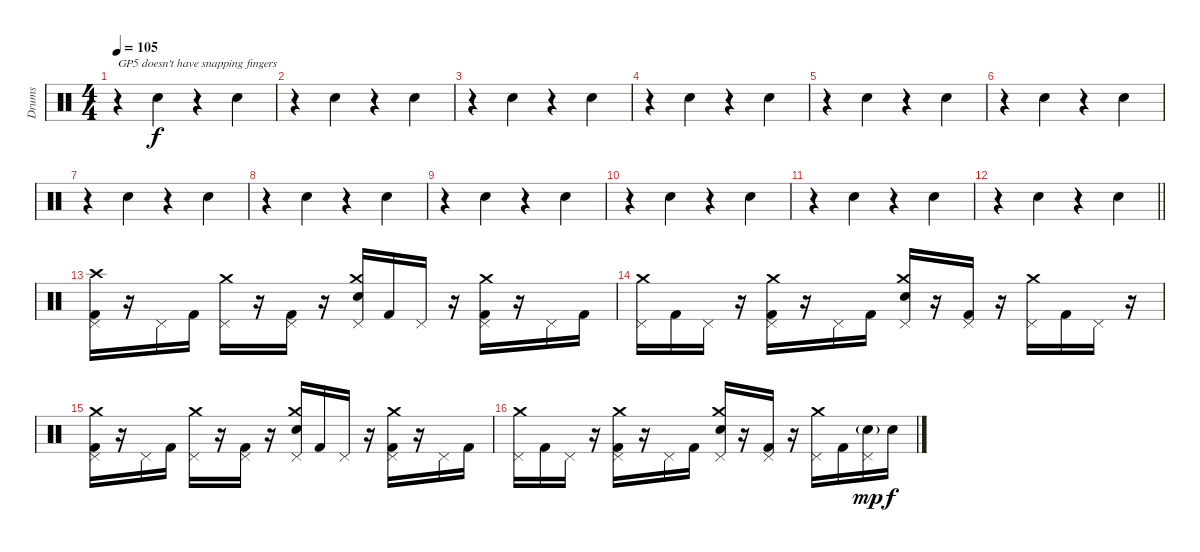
\track ("Drums" "Drums") {instrument percussion}
\staff {score}
\articulation defaults
\ts (4 4)
\section ("" "")
\tempo 105
\clef neutral
\ks c
r.4{txt "GP5 doesn't have snapping fingers" dy f} "Hand Clap (hit)".4 r.4 "Hand Clap (hit)".4 |
r.4 "Hand Clap (hit)".4 r.4 "Hand Clap (hit)".4 |
r.4 "Hand Clap (hit)".4 r.4 "Hand Clap (hit)".4 |
r.4 "Hand Clap (hit)".4 r.4 "Hand Clap (hit)".4 |
r.4 "Hand Clap (hit)".4 r.4 "Hand Clap (hit)".4 |
r.4 "Hand Clap (hit)".4 r.4 "Hand Clap (hit)".4 |
r.4 "Hand Clap (hit)".4 r.4 "Hand Clap (hit)".4 |
r.4 "Hand Clap (hit)".4 r.4 "Hand Clap (hit)".4 |
r.4 "Hand Clap (hit)".4 r.4 "Hand Clap (hit)".4 |
r.4 "Hand Clap (hit)".4 r.4 "Hand Clap (hit)".4 |
r.4{volume 8} "Hand Clap (hit)".4 r.4 "Hand Clap (hit)".4 |
\barLineRight lightlight
r.4 "Hand Clap (hit)".4 r.4 "Hand Clap (hit)".4 |
\section ("" "")
("Crash high (hit)" "Pedal Hi-Hat (hit)" "Kick (hit) 2").16{volume 16} r.16 "Pedal Hi-Hat (hit)".16 "Kick (hit) 2".16 ("Crash medium (hit)" "Pedal Hi-Hat (hit)").16 r.16 ("Pedal Hi-Hat (hit)" "Kick (hit) 2").16 r.16 ("Crash medium (hit)" "Pedal Hi-Hat (hit)" "Electric Snare (hit)").16 "Kick (hit) 2".16 "Pedal Hi-Hat (hit)".16 r.16 ("Crash medium (hit)" "Pedal Hi-Hat (hit)" "Kick (hit) 2").16 r.16 "Pedal Hi-Hat (hit)".16 "Kick (hit) 2".16 |
("Crash medium (hit)" "Pedal Hi-Hat (hit)").16 "Kick (hit) 2".16 "Pedal Hi-Hat (hit)".16 r.16 ("Crash medium (hit)" "Pedal Hi-Hat (hit)" "Kick (hit) 2").16 r.16 "Pedal Hi-Hat (hit)".16 "Kick (hit) 2".16 ("Crash medium (hit)" "Pedal Hi-Hat (hit)" "Electric Snare (hit)").16 r.16 ("Pedal Hi-Hat (hit)" "Kick (hit) 2").16 r.16 ("Crash medium (hit)" "Pedal Hi-Hat (hit)").16 "Kick (hit) 2".16 "Pedal Hi-Hat (hit)".16 r.16 |
("Crash medium (hit)" "Pedal Hi-Hat (hit)" "Kick (hit) 2").16 r.16 "Pedal Hi-Hat (hit)".16 "Kick (hit) 2".16 ("Crash medium (hit)" "Pedal Hi-Hat (hit)").16 r.16 ("Pedal Hi-Hat (hit)" "Kick (hit) 2").16 r.16 ("Crash medium (hit)" "Pedal Hi-Hat (hit)" "Electric Snare (hit)").16 "Kick (hit) 2".16 "Pedal Hi-Hat (hit)".16 r.16 ("Crash medium (hit)" "Pedal Hi-Hat (hit)" "Kick (hit) 2").16 r.16 "Pedal Hi-Hat (hit)".16 "Kick (hit) 2".16 |
("Crash medium (hit)" "Pedal Hi-Hat (hit)").16 "Kick (hit) 2".16 "Pedal Hi-Hat (hit)".16 r.16 ("Crash medium (hit)" "Pedal Hi-Hat (hit)" "Kick (hit) 2").16 r.16 "Pedal Hi-Hat (hit)".16 "Kick (hit) 2".16 ("Crash medium (hit)" "Pedal Hi-Hat (hit)" "Electric Snare (hit)").16 r.16 ("Pedal Hi-Hat (hit)" "Kick (hit) 2").16 r.16 ("Crash medium (hit)" "Pedal Hi-Hat (hit)").16 "Kick (hit) 2".16 ("Pedal Hi-Hat (hit)" "Electric Snare (hit)"{g}).16{dy mp} "Electric Snare (hit)".16{dy f}
